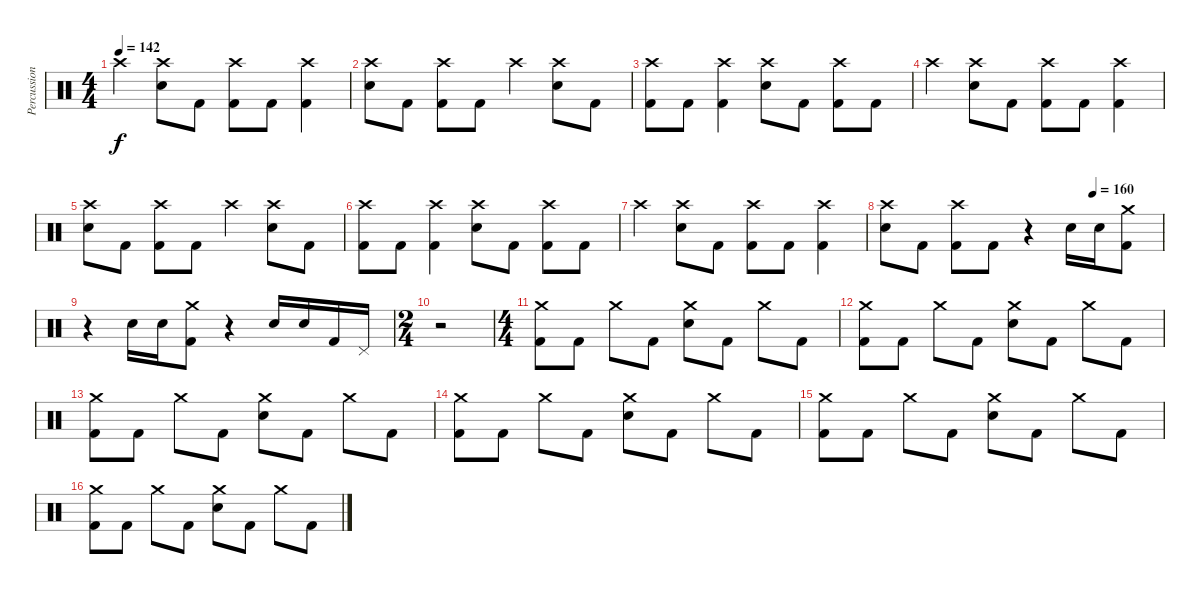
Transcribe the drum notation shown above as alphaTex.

\track ("Percussion" "Percussion") {instrument percussion}
\staff {score}
\articulation defaults
\ts (4 4)
\tempo 142
\clef neutral
\ks c "Crash high (hit)".4{dy f}
("Crash high (hit)" "Electric Snare (hit)").8 "Kick (hit) 2".8 ("Crash high (hit)" "Kick (hit) 2").8 "Kick (hit) 2".8 ("Crash high (hit)" "Kick (hit) 2").4 |
("Crash high (hit)" "Electric Snare (hit)").8 "Kick (hit) 2".8 ("Crash high (hit)" "Kick (hit) 2").8 "Kick (hit) 2".8 "Crash high (hit)".4 ("Crash high (hit)" "Electric Snare (hit)").8 "Kick (hit) 2".8 |
("Crash high (hit)" "Kick (hit) 2").8 "Kick (hit) 2".8 ("Crash high (hit)" "Kick (hit) 2").4 ("Crash high (hit)" "Electric Snare (hit)").8 "Kick (hit) 2".8 ("Crash high (hit)" "Kick (hit) 2").8 "Kick (hit) 2".8 |
"Crash high (hit)".4 ("Crash high (hit)" "Electric Snare (hit)").8 "Kick (hit) 2".8 ("Crash high (hit)" "Kick (hit) 2").8 "Kick (hit) 2".8 ("Crash high (hit)" "Kick (hit) 2").4 |
("Crash high (hit)" "Electric Snare (hit)").8 "Kick (hit) 2".8 ("Crash high (hit)" "Kick (hit) 2").8 "Kick (hit) 2".8 "Crash high (hit)".4 ("Crash high (hit)" "Electric Snare (hit)").8 "Kick (hit) 2".8 |
("Crash high (hit)" "Kick (hit) 2").8 "Kick (hit) 2".8 ("Crash high (hit)" "Kick (hit) 2").4 ("Crash high (hit)" "Electric Snare (hit)").8 "Kick (hit) 2".8 ("Crash high (hit)" "Kick (hit) 2").8 "Kick (hit) 2".8 |
"Crash high (hit)".4 ("Crash high (hit)" "Electric Snare (hit)").8 "Kick (hit) 2".8 ("Crash high (hit)" "Kick (hit) 2").8 "Kick (hit) 2".8 ("Crash high (hit)" "Kick (hit) 2").4 |
\tempo (160 0.75)
("Crash high (hit)" "Electric Snare (hit)").8 "Kick (hit) 2".8 ("Crash high (hit)" "Kick (hit) 2").8 "Kick (hit) 2".8 r.4 "Electric Snare (hit)".16 "Electric Snare (hit)".16 ("Crash medium (hit)" "Kick (hit) 2").8 |
r.4 "Electric Snare (hit)".16 "Electric Snare (hit)".16 ("Crash medium (hit)" "Kick (hit) 2").8 r.4 "Electric Snare (hit)".16 "Electric Snare (hit)".16 "Kick (hit) 2".16 "Pedal Hi-Hat (hit)".16 |
\ts (2 4)
r.2 |
\ts (4 4)
("Crash medium (hit)" "Kick (hit) 2").8 "Kick (hit) 2".8 "Crash medium (hit)".8 "Kick (hit) 2".8 ("Crash medium (hit)" "Electric Snare (hit)").8 "Kick (hit) 2".8 "Crash medium (hit)".8 "Kick (hit) 2".8 |
("Crash medium (hit)" "Kick (hit) 2").8 "Kick (hit) 2".8 "Crash medium (hit)".8 "Kick (hit) 2".8 ("Crash medium (hit)" "Electric Snare (hit)").8 "Kick (hit) 2".8 "Crash medium (hit)".8 "Kick (hit) 2".8 |
("Crash medium (hit)" "Kick (hit) 2").8 "Kick (hit) 2".8 "Crash medium (hit)".8 "Kick (hit) 2".8 ("Crash medium (hit)" "Electric Snare (hit)").8 "Kick (hit) 2".8 "Crash medium (hit)".8 "Kick (hit) 2".8 |
("Crash medium (hit)" "Kick (hit) 2").8 "Kick (hit) 2".8 "Crash medium (hit)".8 "Kick (hit) 2".8 ("Crash medium (hit)" "Electric Snare (hit)").8 "Kick (hit) 2".8 "Crash medium (hit)".8 "Kick (hit) 2".8 |
("Crash medium (hit)" "Kick (hit) 2").8 "Kick (hit) 2".8 "Crash medium (hit)".8 "Kick (hit) 2".8 ("Crash medium (hit)" "Electric Snare (hit)").8 "Kick (hit) 2".8 "Crash medium (hit)".8 "Kick (hit) 2".8 |
("Crash medium (hit)" "Kick (hit) 2").8 "Kick (hit) 2".8 "Crash medium (hit)".8 "Kick (hit) 2".8 ("Crash medium (hit)" "Electric Snare (hit)").8 "Kick (hit) 2".8 "Crash medium (hit)".8 "Kick (hit) 2".8
